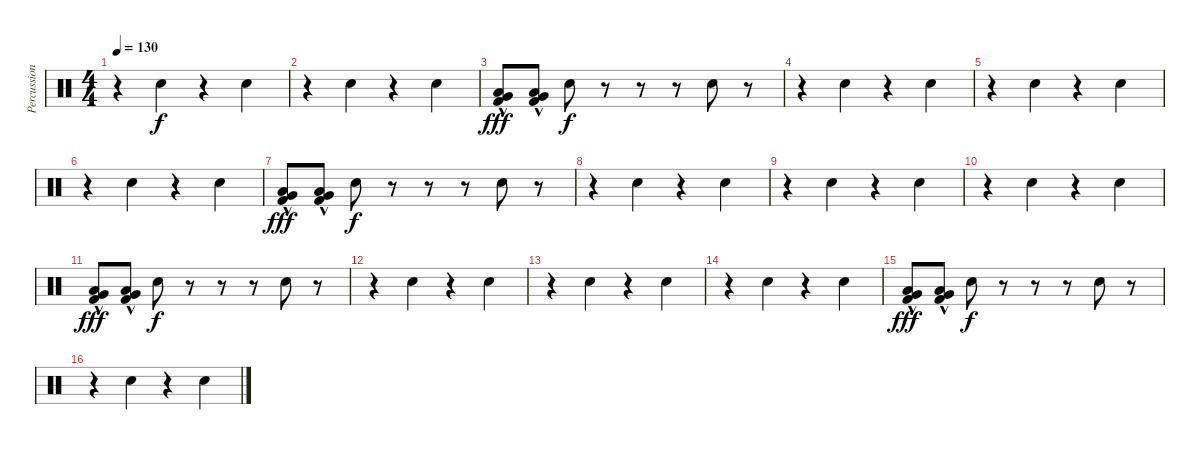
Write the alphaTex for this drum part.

\track ("Percussion" "Percussion") {instrument percussion}
\staff {score}
\articulation defaults
\ts (4 4)
\tempo 130
\clef neutral
\ks c
r.4{dy f} "Snare (hit) 2".4 r.4 "Snare (hit) 2".4 |
r.4 "Snare (hit) 2".4 r.4 "Snare (hit) 2".4 |
("Low Floor Tom (hit)"{hac} "Very Low Tom (hit)"{hac} "Kick (hit) 2"{hac}).8{dy fff} ("Low Floor Tom (hit)"{hac} "Very Low Tom (hit)"{hac} "Kick (hit) 2"{hac}).8 "Snare (hit) 2".8{dy f} r.8 r.8 r.8 "Snare (hit) 2".8 r.8 |
r.4 "Snare (hit) 2".4 r.4 "Snare (hit) 2".4 |
r.4 "Snare (hit) 2".4 r.4 "Snare (hit) 2".4 |
r.4 "Snare (hit) 2".4 r.4 "Snare (hit) 2".4 |
("Low Floor Tom (hit)"{hac} "Very Low Tom (hit)"{hac} "Kick (hit) 2"{hac}).8{dy fff} ("Low Floor Tom (hit)"{hac} "Very Low Tom (hit)"{hac} "Kick (hit) 2"{hac}).8 "Snare (hit) 2".8{dy f} r.8 r.8 r.8 "Snare (hit) 2".8 r.8 |
r.4 "Snare (hit) 2".4 r.4 "Snare (hit) 2".4 |
r.4 "Snare (hit) 2".4 r.4 "Snare (hit) 2".4 |
r.4 "Snare (hit) 2".4 r.4 "Snare (hit) 2".4 |
("Low Floor Tom (hit)"{hac} "Very Low Tom (hit)"{hac} "Kick (hit) 2"{hac}).8{dy fff} ("Low Floor Tom (hit)"{hac} "Very Low Tom (hit)"{hac} "Kick (hit) 2"{hac}).8 "Snare (hit) 2".8{dy f} r.8 r.8 r.8 "Snare (hit) 2".8 r.8 |
r.4 "Snare (hit) 2".4 r.4 "Snare (hit) 2".4 |
r.4 "Snare (hit) 2".4 r.4 "Snare (hit) 2".4 |
r.4 "Snare (hit) 2".4 r.4 "Snare (hit) 2".4 |
("Low Floor Tom (hit)"{hac} "Very Low Tom (hit)"{hac} "Kick (hit) 2"{hac}).8{dy fff} ("Low Floor Tom (hit)"{hac} "Very Low Tom (hit)"{hac} "Kick (hit) 2"{hac}).8 "Snare (hit) 2".8{dy f} r.8 r.8 r.8 "Snare (hit) 2".8 r.8 |
r.4 "Snare (hit) 2".4 r.4 "Snare (hit) 2".4
